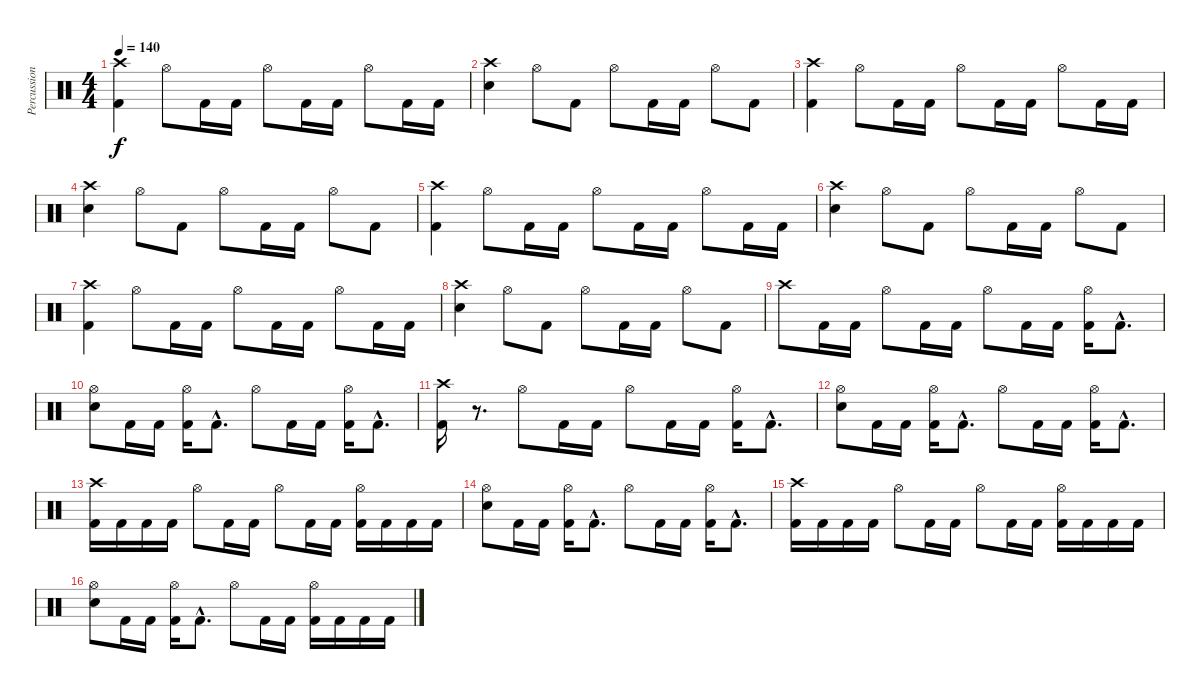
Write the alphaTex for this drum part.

\track ("Percussion" "Percussion") {instrument percussion}
\staff {score}
\articulation defaults
\ts (4 4)
\tempo 140
\clef neutral
\ks c
("Crash high (hit)" "Kick (hit) 2").4{dy f} "Hi-Hat (open)".8 "Kick (hit) 2".16 "Kick (hit) 2".16 "Hi-Hat (open)".8 "Kick (hit) 2".16 "Kick (hit) 2".16 "Hi-Hat (open)".8 "Kick (hit) 2".16 "Kick (hit) 2".16 |
("Crash high (hit)" "Snare (hit) 2").4 "Hi-Hat (open)".8 "Kick (hit) 2".8 "Hi-Hat (open)".8 "Kick (hit) 2".16 "Kick (hit) 2".16 "Hi-Hat (open)".8 "Kick (hit) 2".8 |
("Crash high (hit)" "Kick (hit) 2").4 "Hi-Hat (open)".8 "Kick (hit) 2".16 "Kick (hit) 2".16 "Hi-Hat (open)".8 "Kick (hit) 2".16 "Kick (hit) 2".16 "Hi-Hat (open)".8 "Kick (hit) 2".16 "Kick (hit) 2".16 |
("Crash high (hit)" "Snare (hit) 2").4 "Hi-Hat (open)".8 "Kick (hit) 2".8 "Hi-Hat (open)".8 "Kick (hit) 2".16 "Kick (hit) 2".16 "Hi-Hat (open)".8 "Kick (hit) 2".8 |
("Crash high (hit)" "Kick (hit) 2").4 "Hi-Hat (open)".8 "Kick (hit) 2".16 "Kick (hit) 2".16 "Hi-Hat (open)".8 "Kick (hit) 2".16 "Kick (hit) 2".16 "Hi-Hat (open)".8 "Kick (hit) 2".16 "Kick (hit) 2".16 |
("Crash high (hit)" "Snare (hit) 2").4 "Hi-Hat (open)".8 "Kick (hit) 2".8 "Hi-Hat (open)".8 "Kick (hit) 2".16 "Kick (hit) 2".16 "Hi-Hat (open)".8 "Kick (hit) 2".8 |
("Crash high (hit)" "Kick (hit) 2").4 "Hi-Hat (open)".8 "Kick (hit) 2".16 "Kick (hit) 2".16 "Hi-Hat (open)".8 "Kick (hit) 2".16 "Kick (hit) 2".16 "Hi-Hat (open)".8 "Kick (hit) 2".16 "Kick (hit) 2".16 |
("Crash high (hit)" "Snare (hit) 2").4 "Hi-Hat (open)".8 "Kick (hit) 2".8 "Hi-Hat (open)".8 "Kick (hit) 2".16 "Kick (hit) 2".16 "Hi-Hat (open)".8 "Kick (hit) 2".8 |
"Crash high (hit)".8 "Kick (hit) 2".16 "Kick (hit) 2".16 "Hi-Hat (open)".8 "Kick (hit) 2".16 "Kick (hit) 2".16 "Hi-Hat (open)".8 "Kick (hit) 2".16 "Kick (hit) 2".16 ("Hi-Hat (open)" "Kick (hit) 2").16 "Kick (hit) 2"{hac}.8{d} |
("Hi-Hat (open)" "Snare (hit) 2").8 "Kick (hit) 2".16 "Kick (hit) 2".16 ("Hi-Hat (open)" "Kick (hit) 2").16 "Kick (hit) 2"{hac}.8{d} "Hi-Hat (open)".8 "Kick (hit) 2".16 "Kick (hit) 2".16 ("Hi-Hat (open)" "Kick (hit) 2").16 "Kick (hit) 2"{hac}.8{d} |
("Crash high (hit)" "Kick (hit) 2").16 r.8{d} "Hi-Hat (open)".8 "Kick (hit) 2".16 "Kick (hit) 2".16 "Hi-Hat (open)".8 "Kick (hit) 2".16 "Kick (hit) 2".16 ("Hi-Hat (open)" "Kick (hit) 2").16 "Kick (hit) 2"{hac}.8{d} |
("Hi-Hat (open)" "Snare (hit) 2").8 "Kick (hit) 2".16 "Kick (hit) 2".16 ("Hi-Hat (open)" "Kick (hit) 2").16 "Kick (hit) 2"{hac}.8{d} "Hi-Hat (open)".8 "Kick (hit) 2".16 "Kick (hit) 2".16 ("Hi-Hat (open)" "Kick (hit) 2").16 "Kick (hit) 2"{hac}.8{d} |
("Crash high (hit)" "Kick (hit) 2").16 "Kick (hit) 2".16 "Kick (hit) 2".16 "Kick (hit) 2".16 "Hi-Hat (open)".8 "Kick (hit) 2".16 "Kick (hit) 2".16 "Hi-Hat (open)".8 "Kick (hit) 2".16 "Kick (hit) 2".16 ("Hi-Hat (open)" "Kick (hit) 2").16 "Kick (hit) 2".16 "Kick (hit) 2".16 "Kick (hit) 2".16 |
("Snare (hit) 2" "Hi-Hat (open)").8 "Kick (hit) 2".16 "Kick (hit) 2".16 ("Hi-Hat (open)" "Kick (hit) 2").16 "Kick (hit) 2"{hac}.8{d} "Hi-Hat (open)".8 "Kick (hit) 2".16 "Kick (hit) 2".16 ("Hi-Hat (open)" "Kick (hit) 2").16 "Kick (hit) 2"{hac}.8{d} |
("Crash high (hit)" "Kick (hit) 2").16 "Kick (hit) 2".16 "Kick (hit) 2".16 "Kick (hit) 2".16 "Hi-Hat (open)".8 "Kick (hit) 2".16 "Kick (hit) 2".16 "Hi-Hat (open)".8 "Kick (hit) 2".16 "Kick (hit) 2".16 ("Hi-Hat (open)" "Kick (hit) 2").16 "Kick (hit) 2".16 "Kick (hit) 2".16 "Kick (hit) 2".16 |
("Hi-Hat (open)" "Snare (hit) 2").8 "Kick (hit) 2".16 "Kick (hit) 2".16 ("Hi-Hat (open)" "Kick (hit) 2").16 "Kick (hit) 2"{hac}.8{d} "Hi-Hat (open)".8 "Kick (hit) 2".16 "Kick (hit) 2".16 ("Hi-Hat (open)" "Kick (hit) 2").16 "Kick (hit) 2".16 "Kick (hit) 2".16 "Kick (hit) 2".16
